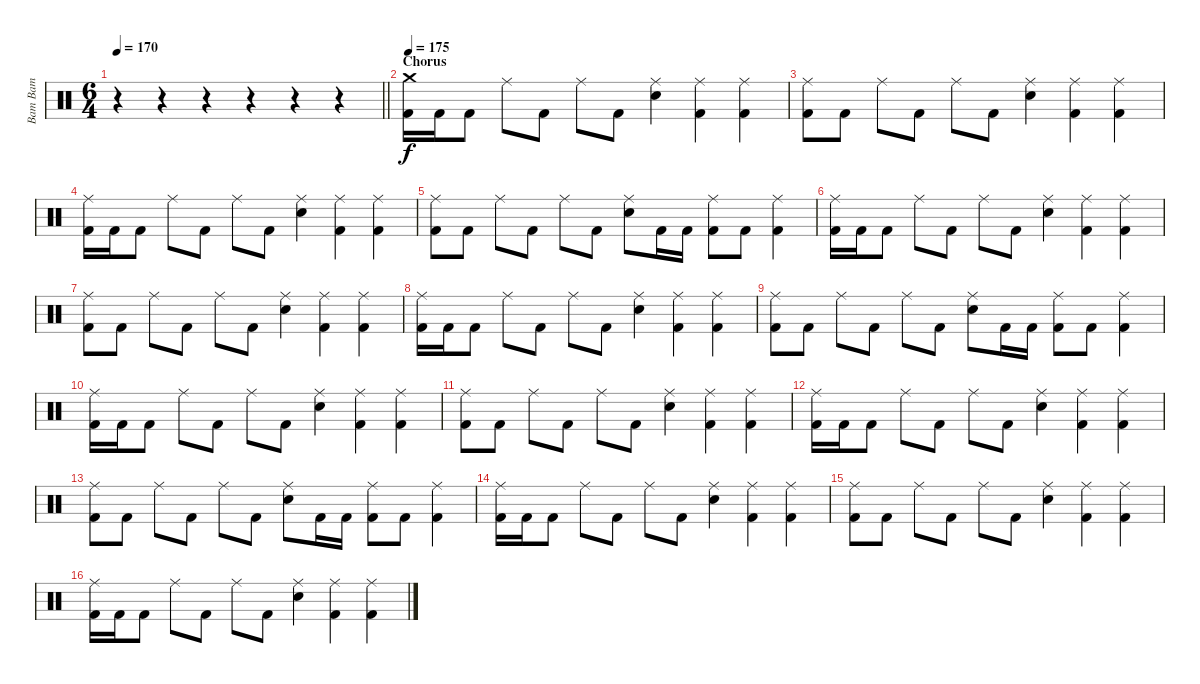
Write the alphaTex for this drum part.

\track ("Bam Bam" "Bam Bam") {instrument percussion}
\staff {score}
\articulation defaults
\ts (6 4)
\tempo 170
\clef neutral
\barLineRight lightlight
\ks c
r.4{dy f} r.4 r.4 r.4 r.4 r.4 |
\section ("" "Chorus ")
\tempo 175
("Crash medium (hit)" "Kick (hit) 2").16 "Kick (hit) 2".16 "Kick (hit) 2".8 "Ride (middle)".8 "Kick (hit) 2".8 "Ride (middle)".8 "Kick (hit) 2".8 ("Ride (middle)" "Electric Snare (hit)").4 ("Ride (middle)" "Kick (hit) 2").4 ("Ride (middle)" "Kick (hit) 2").4 |
("Ride (middle)" "Kick (hit) 2").8 "Kick (hit) 2".8 "Ride (middle)".8 "Kick (hit) 2".8 "Ride (middle)".8 "Kick (hit) 2".8 ("Ride (middle)" "Electric Snare (hit)").4 ("Ride (middle)" "Kick (hit) 2").4 ("Ride (middle)" "Kick (hit) 2").4 |
("Ride (middle)" "Kick (hit) 2").16 "Kick (hit) 2".16 "Kick (hit) 2".8 "Ride (middle)".8 "Kick (hit) 2".8 "Ride (middle)".8 "Kick (hit) 2".8 ("Ride (middle)" "Electric Snare (hit)").4 ("Ride (middle)" "Kick (hit) 2").4 ("Ride (middle)" "Kick (hit) 2").4 |
("Ride (middle)" "Kick (hit) 2").8 "Kick (hit) 2".8 "Ride (middle)".8 "Kick (hit) 2".8 "Ride (middle)".8 "Kick (hit) 2".8 ("Ride (middle)" "Electric Snare (hit)").8 "Kick (hit) 2".16 "Kick (hit) 2".16 ("Ride (middle)" "Kick (hit) 2").8 "Kick (hit) 2".8 ("Ride (middle)" "Kick (hit) 2").4 |
("Ride (middle)" "Kick (hit) 2").16 "Kick (hit) 2".16 "Kick (hit) 2".8 "Ride (middle)".8 "Kick (hit) 2".8 "Ride (middle)".8 "Kick (hit) 2".8 ("Ride (middle)" "Electric Snare (hit)").4 ("Ride (middle)" "Kick (hit) 2").4 ("Ride (middle)" "Kick (hit) 2").4 |
("Ride (middle)" "Kick (hit) 2").8 "Kick (hit) 2".8 "Ride (middle)".8 "Kick (hit) 2".8 "Ride (middle)".8 "Kick (hit) 2".8 ("Ride (middle)" "Electric Snare (hit)").4 ("Ride (middle)" "Kick (hit) 2").4 ("Ride (middle)" "Kick (hit) 2").4 |
("Ride (middle)" "Kick (hit) 2").16 "Kick (hit) 2".16 "Kick (hit) 2".8 "Ride (middle)".8 "Kick (hit) 2".8 "Ride (middle)".8 "Kick (hit) 2".8 ("Ride (middle)" "Electric Snare (hit)").4 ("Ride (middle)" "Kick (hit) 2").4 ("Ride (middle)" "Kick (hit) 2").4 |
("Ride (middle)" "Kick (hit) 2").8 "Kick (hit) 2".8 "Ride (middle)".8 "Kick (hit) 2".8 "Ride (middle)".8 "Kick (hit) 2".8 ("Ride (middle)" "Electric Snare (hit)").8 "Kick (hit) 2".16 "Kick (hit) 2".16 ("Ride (middle)" "Kick (hit) 2").8 "Kick (hit) 2".8 ("Ride (middle)" "Kick (hit) 2").4 |
("Ride (middle)" "Kick (hit) 2").16 "Kick (hit) 2".16 "Kick (hit) 2".8 "Ride (middle)".8 "Kick (hit) 2".8 "Ride (middle)".8 "Kick (hit) 2".8 ("Ride (middle)" "Electric Snare (hit)").4 ("Ride (middle)" "Kick (hit) 2").4 ("Ride (middle)" "Kick (hit) 2").4 |
("Ride (middle)" "Kick (hit) 2").8 "Kick (hit) 2".8 "Ride (middle)".8 "Kick (hit) 2".8 "Ride (middle)".8 "Kick (hit) 2".8 ("Ride (middle)" "Electric Snare (hit)").4 ("Ride (middle)" "Kick (hit) 2").4 ("Ride (middle)" "Kick (hit) 2").4 |
("Ride (middle)" "Kick (hit) 2").16 "Kick (hit) 2".16 "Kick (hit) 2".8 "Ride (middle)".8 "Kick (hit) 2".8 "Ride (middle)".8 "Kick (hit) 2".8 ("Ride (middle)" "Electric Snare (hit)").4 ("Ride (middle)" "Kick (hit) 2").4 ("Ride (middle)" "Kick (hit) 2").4 |
("Ride (middle)" "Kick (hit) 2").8 "Kick (hit) 2".8 "Ride (middle)".8 "Kick (hit) 2".8 "Ride (middle)".8 "Kick (hit) 2".8 ("Ride (middle)" "Electric Snare (hit)").8 "Kick (hit) 2".16 "Kick (hit) 2".16 ("Ride (middle)" "Kick (hit) 2").8 "Kick (hit) 2".8 ("Ride (middle)" "Kick (hit) 2").4 |
("Ride (middle)" "Kick (hit) 2").16 "Kick (hit) 2".16 "Kick (hit) 2".8 "Ride (middle)".8 "Kick (hit) 2".8 "Ride (middle)".8 "Kick (hit) 2".8 ("Ride (middle)" "Electric Snare (hit)").4 ("Ride (middle)" "Kick (hit) 2").4 ("Ride (middle)" "Kick (hit) 2").4 |
("Ride (middle)" "Kick (hit) 2").8 "Kick (hit) 2".8 "Ride (middle)".8 "Kick (hit) 2".8 "Ride (middle)".8 "Kick (hit) 2".8 ("Ride (middle)" "Electric Snare (hit)").4 ("Ride (middle)" "Kick (hit) 2").4 ("Ride (middle)" "Kick (hit) 2").4 |
("Ride (middle)" "Kick (hit) 2").16 "Kick (hit) 2".16 "Kick (hit) 2".8 "Ride (middle)".8 "Kick (hit) 2".8 "Ride (middle)".8 "Kick (hit) 2".8 ("Ride (middle)" "Electric Snare (hit)").4 ("Ride (middle)" "Kick (hit) 2").4 ("Ride (middle)" "Kick (hit) 2").4
